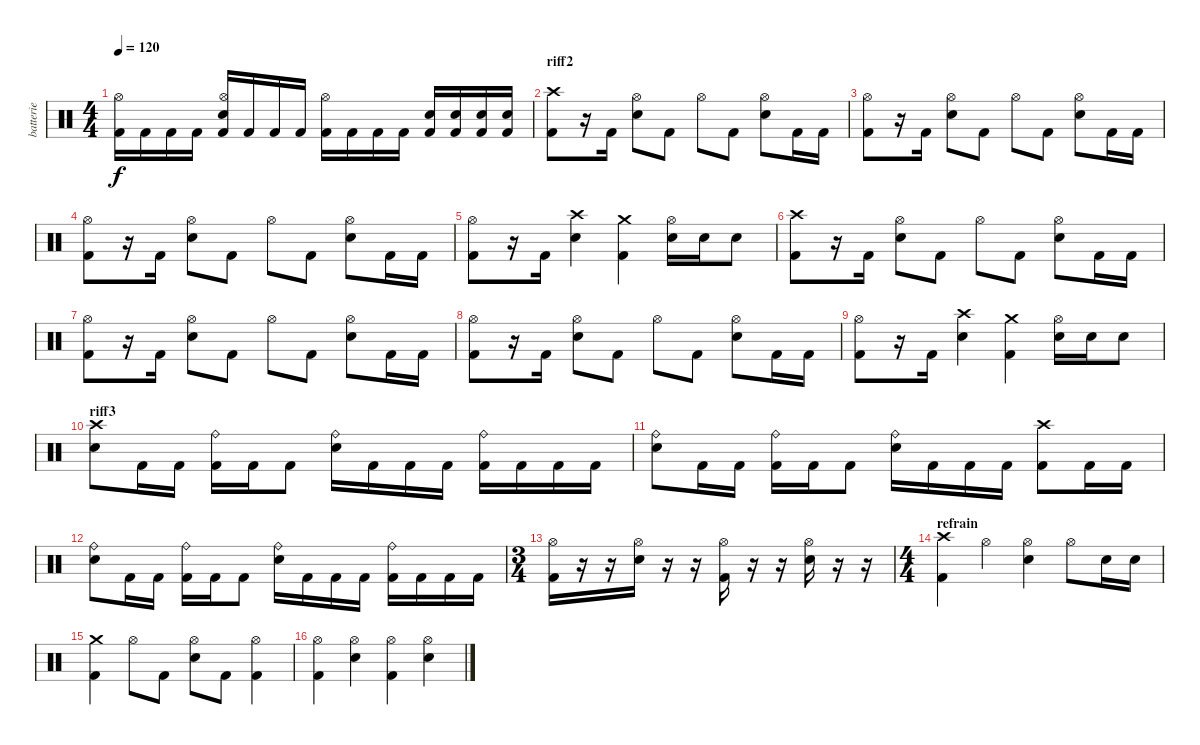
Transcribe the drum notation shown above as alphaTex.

\track ("batterie" "batterie") {instrument percussion}
\staff {score}
\articulation defaults
\ts (4 4)
\tempo 120
\clef neutral
\ks c
("Kick (hit) 2" "Hi-Hat (open)").16{dy f} "Kick (hit) 2".16 "Kick (hit) 2".16 "Kick (hit) 2".16 ("Snare (hit) 2" "Kick (hit) 2" "Hi-Hat (open)").16 "Kick (hit) 2".16 "Kick (hit) 2".16 "Kick (hit) 2".16 ("Kick (hit) 2" "Hi-Hat (open)").16 "Kick (hit) 2".16 "Kick (hit) 2".16 "Kick (hit) 2".16 ("Snare (hit) 2" "Kick (hit) 2").16 ("Snare (hit) 2" "Kick (hit) 2").16 ("Snare (hit) 2" "Kick (hit) 2").16 ("Snare (hit) 2" "Kick (hit) 2").16 |
\section ("" "riff2")
("Crash high (hit)" "Kick (hit) 2").8 r.16 "Kick (hit) 2".16 ("Snare (hit) 2" "Hi-Hat (open)").8 "Kick (hit) 2".8 "Hi-Hat (open)".8 "Kick (hit) 2".8 ("Snare (hit) 2" "Hi-Hat (open)").8 "Kick (hit) 2".16 "Kick (hit) 2".16 |
("Kick (hit) 2" "Hi-Hat (open)").8 r.16 "Kick (hit) 2".16 ("Snare (hit) 2" "Hi-Hat (open)").8 "Kick (hit) 2".8 "Hi-Hat (open)".8 "Kick (hit) 2".8 ("Snare (hit) 2" "Hi-Hat (open)").8 "Kick (hit) 2".16 "Kick (hit) 2".16 |
("Kick (hit) 2" "Hi-Hat (open)").8 r.16 "Kick (hit) 2".16 ("Snare (hit) 2" "Hi-Hat (open)").8 "Kick (hit) 2".8 "Hi-Hat (open)".8 "Kick (hit) 2".8 ("Snare (hit) 2" "Hi-Hat (open)").8 "Kick (hit) 2".16 "Kick (hit) 2".16 |
("Kick (hit) 2" "Hi-Hat (open)").8 r.16 "Kick (hit) 2".16 ("Crash high (hit)" "Snare (hit) 2").4 ("Crash medium (hit)" "Kick (hit) 2").4 ("Snare (hit) 2" "Hi-Hat (open)").16 "Snare (hit) 2".16 "Snare (hit) 2".8 |
("Crash high (hit)" "Kick (hit) 2").8 r.16 "Kick (hit) 2".16 ("Snare (hit) 2" "Hi-Hat (open)").8 "Kick (hit) 2".8 "Hi-Hat (open)".8 "Kick (hit) 2".8 ("Snare (hit) 2" "Hi-Hat (open)").8 "Kick (hit) 2".16 "Kick (hit) 2".16 |
("Kick (hit) 2" "Hi-Hat (open)").8 r.16 "Kick (hit) 2".16 ("Snare (hit) 2" "Hi-Hat (open)").8 "Kick (hit) 2".8 "Hi-Hat (open)".8 "Kick (hit) 2".8 ("Snare (hit) 2" "Hi-Hat (open)").8 "Kick (hit) 2".16 "Kick (hit) 2".16 |
("Kick (hit) 2" "Hi-Hat (open)").8 r.16 "Kick (hit) 2".16 ("Snare (hit) 2" "Hi-Hat (open)").8 "Kick (hit) 2".8 "Hi-Hat (open)".8 "Kick (hit) 2".8 ("Snare (hit) 2" "Hi-Hat (open)").8 "Kick (hit) 2".16 "Kick (hit) 2".16 |
("Kick (hit) 2" "Hi-Hat (open)").8 r.16 "Kick (hit) 2".16 ("Crash high (hit)" "Snare (hit) 2").4 ("Crash medium (hit)" "Kick (hit) 2").4 ("Snare (hit) 2" "Hi-Hat (open)").16 "Snare (hit) 2".16 "Snare (hit) 2".8 |
\section ("" "riff3")
("Crash high (hit)" "Snare (hit) 2").8 "Kick (hit) 2".16 "Kick (hit) 2".16 ("Kick (hit) 2" "Ride (bell)").16 "Kick (hit) 2".16 "Kick (hit) 2".8 ("Snare (hit) 2" "Ride (bell)").16 "Kick (hit) 2".16 "Kick (hit) 2".16 "Kick (hit) 2".16 ("Kick (hit) 2" "Ride (bell)").16 "Kick (hit) 2".16 "Kick (hit) 2".16 "Kick (hit) 2".16 |
("Snare (hit) 2" "Ride (bell)").8 "Kick (hit) 2".16 "Kick (hit) 2".16 ("Kick (hit) 2" "Ride (bell)").16 "Kick (hit) 2".16 "Kick (hit) 2".8 ("Snare (hit) 2" "Ride (bell)").16 "Kick (hit) 2".16 "Kick (hit) 2".16 "Kick (hit) 2".16 ("Crash high (hit)" "Kick (hit) 2").8 "Kick (hit) 2".16 "Kick (hit) 2".16 |
("Snare (hit) 2" "Ride (bell)").8 "Kick (hit) 2".16 "Kick (hit) 2".16 ("Kick (hit) 2" "Ride (bell)").16 "Kick (hit) 2".16 "Kick (hit) 2".8 ("Snare (hit) 2" "Ride (bell)").16 "Kick (hit) 2".16 "Kick (hit) 2".16 "Kick (hit) 2".16 ("Kick (hit) 2" "Ride (bell)").16 "Kick (hit) 2".16 "Kick (hit) 2".16 "Kick (hit) 2".16 |
\ts (3 4)
("Kick (hit) 2" "Hi-Hat (open)").16 r.16 r.16 ("Snare (hit) 2" "Hi-Hat (open)").16 r.16 r.16 ("Kick (hit) 2" "Hi-Hat (open)").16 r.16 r.16 ("Snare (hit) 2" "Hi-Hat (open)").16 r.16 r.16 |
\ts (4 4)
\section ("" "refrain")
("Crash high (hit)" "Kick (hit) 2").4 "Hi-Hat (open)".4 ("Snare (hit) 2" "Hi-Hat (open)").4 "Hi-Hat (open)".8 "Snare (hit) 2".16 "Snare (hit) 2".16 |
("Crash medium (hit)" "Kick (hit) 2").4 "Hi-Hat (open)".8 "Kick (hit) 2".8 ("Snare (hit) 2" "Hi-Hat (open)").8 "Kick (hit) 2".8 ("Kick (hit) 2" "Hi-Hat (open)").4 |
("Kick (hit) 2" "Hi-Hat (open)").4 ("Snare (hit) 2" "Hi-Hat (open)").4 ("Kick (hit) 2" "Hi-Hat (open)").4 ("Snare (hit) 2" "Hi-Hat (open)").4
